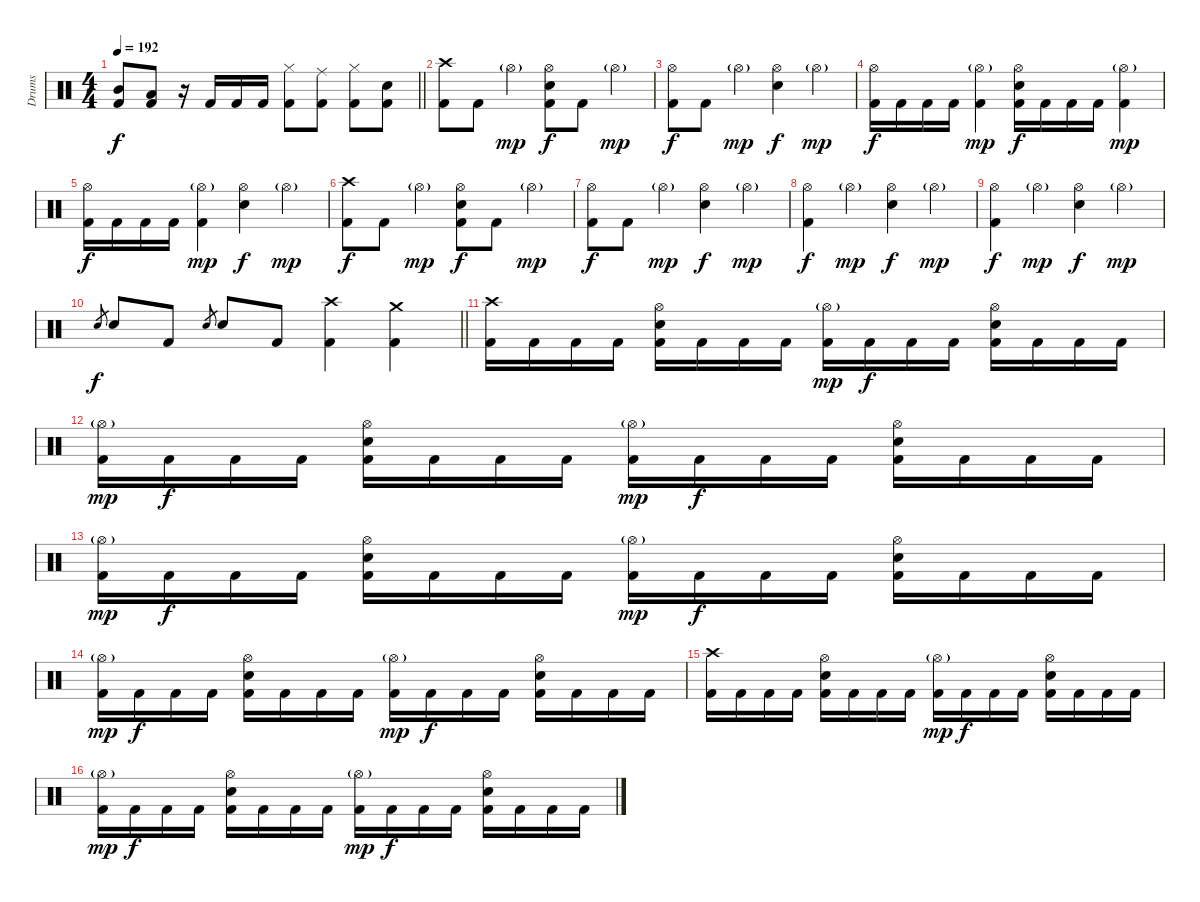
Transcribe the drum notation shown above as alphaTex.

\track ("Drums" "Drums") {instrument percussion}
\staff {score}
\articulation defaults
\ts (4 4)
\tempo 192
\clef neutral
\barLineRight lightlight
\ks c
("Kick (hit) 2" "Mid Tom (hit)").8{dy f} ("Kick (hit) 2" "Low Tom (hit)").8 r.16 "Kick (hit) 2".16 "Kick (hit) 2".16 "Kick (hit) 2".16 ("Kick (hit) 2" "Hi-Hat (closed)").8 ("Kick (hit) 2" "Ride (middle)").8 ("Kick (hit) 2" "Hi-Hat (closed)").8 ("Kick (hit) 2" "Electric Snare (hit)").8 |
("Crash high (hit)" "Kick (hit) 2").8 "Kick (hit) 2".8 "Hi-Hat (open)"{g}.4{dy mp} ("Hi-Hat (open)" "Electric Snare (hit)" "Kick (hit) 2").8{dy f} "Kick (hit) 2".8 "Hi-Hat (open)"{g}.4{dy mp} |
("Hi-Hat (open)" "Kick (hit) 2").8{dy f} "Kick (hit) 2".8 "Hi-Hat (open)"{g}.4{dy mp} ("Hi-Hat (open)" "Electric Snare (hit)").4{dy f} "Hi-Hat (open)"{g}.4{dy mp} |
("Hi-Hat (open)" "Kick (hit) 2").16{dy f} "Kick (hit) 2".16 "Kick (hit) 2".16 "Kick (hit) 2".16 ("Hi-Hat (open)"{g} "Kick (hit) 2").4{dy mp} ("Hi-Hat (open)" "Electric Snare (hit)" "Kick (hit) 2").16{dy f} "Kick (hit) 2".16 "Kick (hit) 2".16 "Kick (hit) 2".16 ("Hi-Hat (open)"{g} "Kick (hit) 2").4{dy mp} |
("Hi-Hat (open)" "Kick (hit) 2").16{dy f} "Kick (hit) 2".16 "Kick (hit) 2".16 "Kick (hit) 2".16 ("Hi-Hat (open)"{g} "Kick (hit) 2").4{dy mp} ("Hi-Hat (open)" "Electric Snare (hit)").4{dy f} "Hi-Hat (open)"{g}.4{dy mp} |
("Crash high (hit)" "Kick (hit) 2").8{dy f} "Kick (hit) 2".8 "Hi-Hat (open)"{g}.4{dy mp} ("Hi-Hat (open)" "Electric Snare (hit)" "Kick (hit) 2").8{dy f} "Kick (hit) 2".8 "Hi-Hat (open)"{g}.4{dy mp} |
("Hi-Hat (open)" "Kick (hit) 2").8{dy f} "Kick (hit) 2".8 "Hi-Hat (open)"{g}.4{dy mp} ("Hi-Hat (open)" "Electric Snare (hit)").4{dy f} "Hi-Hat (open)"{g}.4{dy mp} |
("Hi-Hat (open)" "Kick (hit) 2").4{dy f} "Hi-Hat (open)"{g}.4{dy mp} ("Hi-Hat (open)" "Electric Snare (hit)").4{dy f} "Hi-Hat (open)"{g}.4{dy mp} |
("Hi-Hat (open)" "Kick (hit) 2").4{dy f} "Hi-Hat (open)"{g}.4{dy mp} ("Hi-Hat (open)" "Electric Snare (hit)").4{dy f} "Hi-Hat (open)"{g}.4{dy mp} |
\barLineRight lightlight "Electric Snare (hit)".8{gr dy f} "Electric Snare (hit)".8 "Kick (hit) 2".8 "Electric Snare (hit)".8{gr} "Electric Snare (hit)".8 "Kick (hit) 2".8
("Crash high (hit)" "Kick (hit) 2").4 ("Crash medium (hit)" "Kick (hit) 2").4 |
("Crash high (hit)" "Kick (hit) 2").16 "Kick (hit) 2".16 "Kick (hit) 2".16 "Kick (hit) 2".16 ("Hi-Hat (open)" "Electric Snare (hit)" "Kick (hit) 2").16 "Kick (hit) 2".16 "Kick (hit) 2".16 "Kick (hit) 2".16 ("Hi-Hat (open)"{g} "Kick (hit) 2").16{dy mp} "Kick (hit) 2".16{dy f} "Kick (hit) 2".16 "Kick (hit) 2".16 ("Hi-Hat (open)" "Electric Snare (hit)" "Kick (hit) 2").16 "Kick (hit) 2".16 "Kick (hit) 2".16 "Kick (hit) 2".16 |
("Hi-Hat (open)"{g} "Kick (hit) 2").16{dy mp} "Kick (hit) 2".16{dy f} "Kick (hit) 2".16 "Kick (hit) 2".16 ("Hi-Hat (open)" "Electric Snare (hit)" "Kick (hit) 2").16 "Kick (hit) 2".16 "Kick (hit) 2".16 "Kick (hit) 2".16 ("Hi-Hat (open)"{g} "Kick (hit) 2").16{dy mp} "Kick (hit) 2".16{dy f} "Kick (hit) 2".16 "Kick (hit) 2".16 ("Hi-Hat (open)" "Electric Snare (hit)" "Kick (hit) 2").16 "Kick (hit) 2".16 "Kick (hit) 2".16 "Kick (hit) 2".16 |
("Hi-Hat (open)"{g} "Kick (hit) 2").16{dy mp} "Kick (hit) 2".16{dy f} "Kick (hit) 2".16 "Kick (hit) 2".16 ("Hi-Hat (open)" "Electric Snare (hit)" "Kick (hit) 2").16 "Kick (hit) 2".16 "Kick (hit) 2".16 "Kick (hit) 2".16 ("Hi-Hat (open)"{g} "Kick (hit) 2").16{dy mp} "Kick (hit) 2".16{dy f} "Kick (hit) 2".16 "Kick (hit) 2".16 ("Hi-Hat (open)" "Electric Snare (hit)" "Kick (hit) 2").16 "Kick (hit) 2".16 "Kick (hit) 2".16 "Kick (hit) 2".16 |
("Hi-Hat (open)"{g} "Kick (hit) 2").16{dy mp} "Kick (hit) 2".16{dy f} "Kick (hit) 2".16 "Kick (hit) 2".16 ("Hi-Hat (open)" "Electric Snare (hit)" "Kick (hit) 2").16 "Kick (hit) 2".16 "Kick (hit) 2".16 "Kick (hit) 2".16 ("Hi-Hat (open)"{g} "Kick (hit) 2").16{dy mp} "Kick (hit) 2".16{dy f} "Kick (hit) 2".16 "Kick (hit) 2".16 ("Hi-Hat (open)" "Electric Snare (hit)" "Kick (hit) 2").16 "Kick (hit) 2".16 "Kick (hit) 2".16 "Kick (hit) 2".16 |
("Crash high (hit)" "Kick (hit) 2").16 "Kick (hit) 2".16 "Kick (hit) 2".16 "Kick (hit) 2".16 ("Hi-Hat (open)" "Electric Snare (hit)" "Kick (hit) 2").16 "Kick (hit) 2".16 "Kick (hit) 2".16 "Kick (hit) 2".16 ("Hi-Hat (open)"{g} "Kick (hit) 2").16{dy mp} "Kick (hit) 2".16{dy f} "Kick (hit) 2".16 "Kick (hit) 2".16 ("Hi-Hat (open)" "Electric Snare (hit)" "Kick (hit) 2").16 "Kick (hit) 2".16 "Kick (hit) 2".16 "Kick (hit) 2".16 |
("Hi-Hat (open)"{g} "Kick (hit) 2").16{dy mp} "Kick (hit) 2".16{dy f} "Kick (hit) 2".16 "Kick (hit) 2".16 ("Hi-Hat (open)" "Electric Snare (hit)" "Kick (hit) 2").16 "Kick (hit) 2".16 "Kick (hit) 2".16 "Kick (hit) 2".16 ("Hi-Hat (open)"{g} "Kick (hit) 2").16{dy mp} "Kick (hit) 2".16{dy f} "Kick (hit) 2".16 "Kick (hit) 2".16 ("Hi-Hat (open)" "Electric Snare (hit)" "Kick (hit) 2").16 "Kick (hit) 2".16 "Kick (hit) 2".16 "Kick (hit) 2".16
